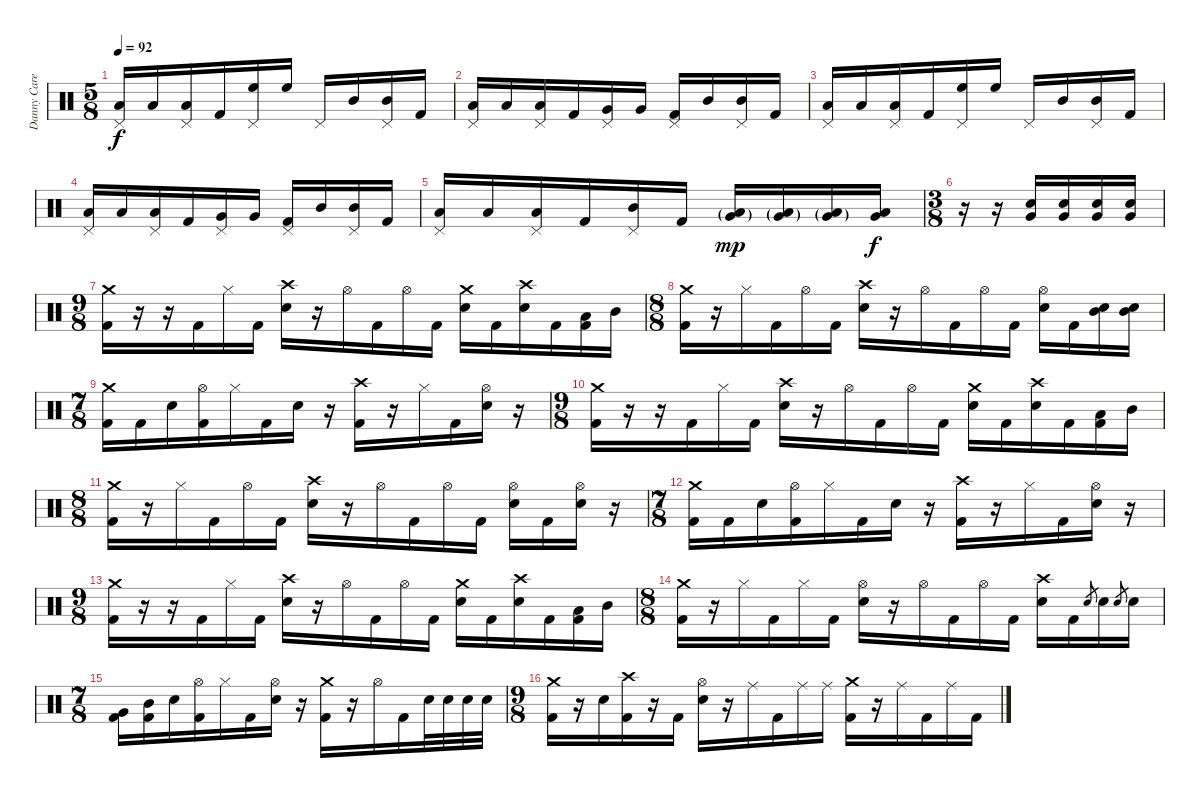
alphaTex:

\track ("Danny Carey" "Danny Care") {instrument percussion}
\staff {score}
\articulation defaults
\ts (5 8)
\tempo 92
\clef neutral
\ks c
("Pedal Hi-Hat (hit)" "Low Floor Tom (hit)").16{dy f} "Low Floor Tom (hit)".16 ("Pedal Hi-Hat (hit)" "Low Floor Tom (hit)").16 "Kick (hit) 2".16 ("Pedal Hi-Hat (hit)" "High Floor Tom (hit)").16 "High Floor Tom (hit)".16 "Pedal Hi-Hat (hit)".16 "Mid Tom (hit)".16 ("Pedal Hi-Hat (hit)" "Mid Tom (hit)").16 "Kick (hit) 2".16 |
("Pedal Hi-Hat (hit)" "Low Floor Tom (hit)").16 "Low Floor Tom (hit)".16 ("Pedal Hi-Hat (hit)" "Low Floor Tom (hit)").16 "Kick (hit) 2".16 ("Pedal Hi-Hat (hit)" "Very Low Tom (hit)").16 "Very Low Tom (hit)".16 ("Pedal Hi-Hat (hit)" "Kick (hit) 2").16 "Mid Tom (hit)".16 ("Pedal Hi-Hat (hit)" "Mid Tom (hit)").16 "Kick (hit) 2".16 |
("Pedal Hi-Hat (hit)" "Low Floor Tom (hit)").16 "Low Floor Tom (hit)".16 ("Pedal Hi-Hat (hit)" "Low Floor Tom (hit)").16 "Kick (hit) 2".16 ("Pedal Hi-Hat (hit)" "High Floor Tom (hit)").16 "High Floor Tom (hit)".16 "Pedal Hi-Hat (hit)".16 "Mid Tom (hit)".16 ("Pedal Hi-Hat (hit)" "Mid Tom (hit)").16 "Kick (hit) 2".16 |
("Pedal Hi-Hat (hit)" "Low Floor Tom (hit)").16 "Low Floor Tom (hit)".16 ("Pedal Hi-Hat (hit)" "Low Floor Tom (hit)").16 "Kick (hit) 2".16 ("Pedal Hi-Hat (hit)" "Very Low Tom (hit)").16 "Very Low Tom (hit)".16 ("Pedal Hi-Hat (hit)" "Kick (hit) 2").16 "Mid Tom (hit)".16 ("Pedal Hi-Hat (hit)" "Mid Tom (hit)").16 "Kick (hit) 2".16 |
("Pedal Hi-Hat (hit)" "Low Floor Tom (hit)").16 "Low Floor Tom (hit)".16 ("Pedal Hi-Hat (hit)" "Low Floor Tom (hit)").16 "Kick (hit) 2".16 ("Pedal Hi-Hat (hit)" "Mid Tom (hit)").16 "Kick (hit) 2".16 ("Low Floor Tom (hit)"{g} "Very Low Tom (hit)"{g}).16{dy mp} ("Low Floor Tom (hit)"{g} "Very Low Tom (hit)"{g}).16 ("Low Floor Tom (hit)"{g} "Very Low Tom (hit)"{g}).16 ("Low Floor Tom (hit)" "Very Low Tom (hit)").16{dy f} |
\ts (3 8)
r.16 r.16 ("Very Low Tom (hit)" "Electric Snare (hit)").16 ("Very Low Tom (hit)" "Electric Snare (hit)").16 ("Very Low Tom (hit)" "Electric Snare (hit)").16 ("Very Low Tom (hit)" "Electric Snare (hit)").16 |
\ts (9 8)
("Crash medium (hit)" "Kick (hit) 2").16 r.16 r.16 "Kick (hit) 2".16 "Hi-Hat (closed)".16 "Kick (hit) 2".16 ("Crash high (hit)" "Electric Snare (hit)").16 r.16 "Hi-Hat (open)".16 "Kick (hit) 2".16 "Hi-Hat (open)".16 "Kick (hit) 2".16 ("Crash medium (hit)" "Electric Snare (hit)").16 "Kick (hit) 2".16 ("Crash high (hit)" "Electric Snare (hit)").16 "Kick (hit) 2".16 ("Low Tom (hit)" "Kick (hit) 2").16 "Mid Tom (hit)".16 |
\ts (8 8)
("Crash medium (hit)" "Kick (hit) 2").16 r.16 "Hi-Hat (closed)".16 "Kick (hit) 2".16 "Hi-Hat (open)".16 "Kick (hit) 2".16 ("Crash high (hit)" "Electric Snare (hit)").16 r.16 "Hi-Hat (open)".16 "Kick (hit) 2".16 "Hi-Hat (open)".16 "Kick (hit) 2".16 ("Hi-Hat (open)" "Electric Snare (hit)").16 "Kick (hit) 2".16 ("Mid Tom (hit)" "Electric Snare (hit)").16 ("Mid Tom (hit)" "Electric Snare (hit)").16 |
\ts (7 8)
("Crash medium (hit)" "Kick (hit) 2").16 "Kick (hit) 2".16 "Electric Snare (hit)".16 ("Hi-Hat (open)" "Kick (hit) 2").16 "Hi-Hat (closed)".16 "Kick (hit) 2".16 "Electric Snare (hit)".16 r.16 ("Crash high (hit)" "Kick (hit) 2").16 r.16 "Hi-Hat (closed)".16 "Kick (hit) 2".16 ("Hi-Hat (open)" "Electric Snare (hit)").16 r.16 |
\ts (9 8)
("Crash medium (hit)" "Kick (hit) 2").16 r.16 r.16 "Kick (hit) 2".16 "Hi-Hat (closed)".16 "Kick (hit) 2".16 ("Crash high (hit)" "Electric Snare (hit)").16 r.16 "Hi-Hat (open)".16 "Kick (hit) 2".16 "Hi-Hat (open)".16 "Kick (hit) 2".16 ("Crash medium (hit)" "Electric Snare (hit)").16 "Kick (hit) 2".16 ("Crash high (hit)" "Electric Snare (hit)").16 "Kick (hit) 2".16 ("Low Tom (hit)" "Kick (hit) 2").16 "Mid Tom (hit)".16 |
\ts (8 8)
("Crash medium (hit)" "Kick (hit) 2").16 r.16 "Hi-Hat (closed)".16 "Kick (hit) 2".16 "Hi-Hat (open)".16 "Kick (hit) 2".16 ("Crash high (hit)" "Electric Snare (hit)").16 r.16 "Hi-Hat (open)".16 "Kick (hit) 2".16 "Hi-Hat (open)".16 "Kick (hit) 2".16 ("Hi-Hat (open)" "Electric Snare (hit)").16 "Kick (hit) 2".16 ("Hi-Hat (open)" "Electric Snare (hit)").16 r.16 |
\ts (7 8)
("Crash medium (hit)" "Kick (hit) 2").16 "Kick (hit) 2".16 "Electric Snare (hit)".16 ("Hi-Hat (open)" "Kick (hit) 2").16 "Hi-Hat (closed)".16 "Kick (hit) 2".16 "Electric Snare (hit)".16 r.16 ("Crash high (hit)" "Kick (hit) 2").16 r.16 "Hi-Hat (closed)".16 "Kick (hit) 2".16 ("Hi-Hat (open)" "Electric Snare (hit)").16 r.16 |
\ts (9 8)
("Crash medium (hit)" "Kick (hit) 2").16 r.16 r.16 "Kick (hit) 2".16 "Hi-Hat (closed)".16 "Kick (hit) 2".16 ("Crash high (hit)" "Electric Snare (hit)").16 r.16 "Hi-Hat (open)".16 "Kick (hit) 2".16 "Hi-Hat (open)".16 "Kick (hit) 2".16 ("Crash medium (hit)" "Electric Snare (hit)").16 "Kick (hit) 2".16 ("Crash high (hit)" "Electric Snare (hit)").16 "Kick (hit) 2".16 ("Low Tom (hit)" "Kick (hit) 2").16 "Mid Tom (hit)".16 |
\ts (8 8)
("Crash medium (hit)" "Kick (hit) 2").16 r.16 "Hi-Hat (closed)".16 "Kick (hit) 2".16 "Hi-Hat (closed)".16 "Kick (hit) 2".16 ("Hi-Hat (open)" "Electric Snare (hit)").16 r.16 "Hi-Hat (open)".16 "Kick (hit) 2".16 "Hi-Hat (open)".16 "Kick (hit) 2".16 ("Crash high (hit)" "Electric Snare (hit)").16 "Kick (hit) 2".16 "Electric Snare (hit)".8{gr} "Electric Snare (hit)".16 "Electric Snare (hit)".8{gr} "Electric Snare (hit)".16 |
\ts (7 8)
("Very Low Tom (hit)" "Kick (hit) 2").16 ("Mid Tom (hit)" "Kick (hit) 2").16 "Electric Snare (hit)".16 ("Hi-Hat (open)" "Kick (hit) 2").16 "Hi-Hat (closed)".16 "Kick (hit) 2".16 ("Hi-Hat (open)" "Electric Snare (hit)").16 r.16 ("Crash medium (hit)" "Kick (hit) 2").16 r.16 "Hi-Hat (open)".16 "Kick (hit) 2".16 "Electric Snare (hit)".32 "Electric Snare (hit)".32 "Electric Snare (hit)".32 "Electric Snare (hit)".32 |
\ts (9 8)
("Crash medium (hit)" "Kick (hit) 2").16 r.16 "Electric Snare (hit)".16 ("Crash high (hit)" "Kick (hit) 2").16 r.16 "Kick (hit) 2".16 ("Hi-Hat (open)" "Electric Snare (hit)").16 r.16 "Ride (middle)".16 "Kick (hit) 2".16 "Ride (middle)".16 "Ride (middle)".16 ("Crash medium (hit)" "Kick (hit) 2").16 r.16 "Ride (middle)".16 "Kick (hit) 2".16 "Ride (middle)".16 "Kick (hit) 2".16
